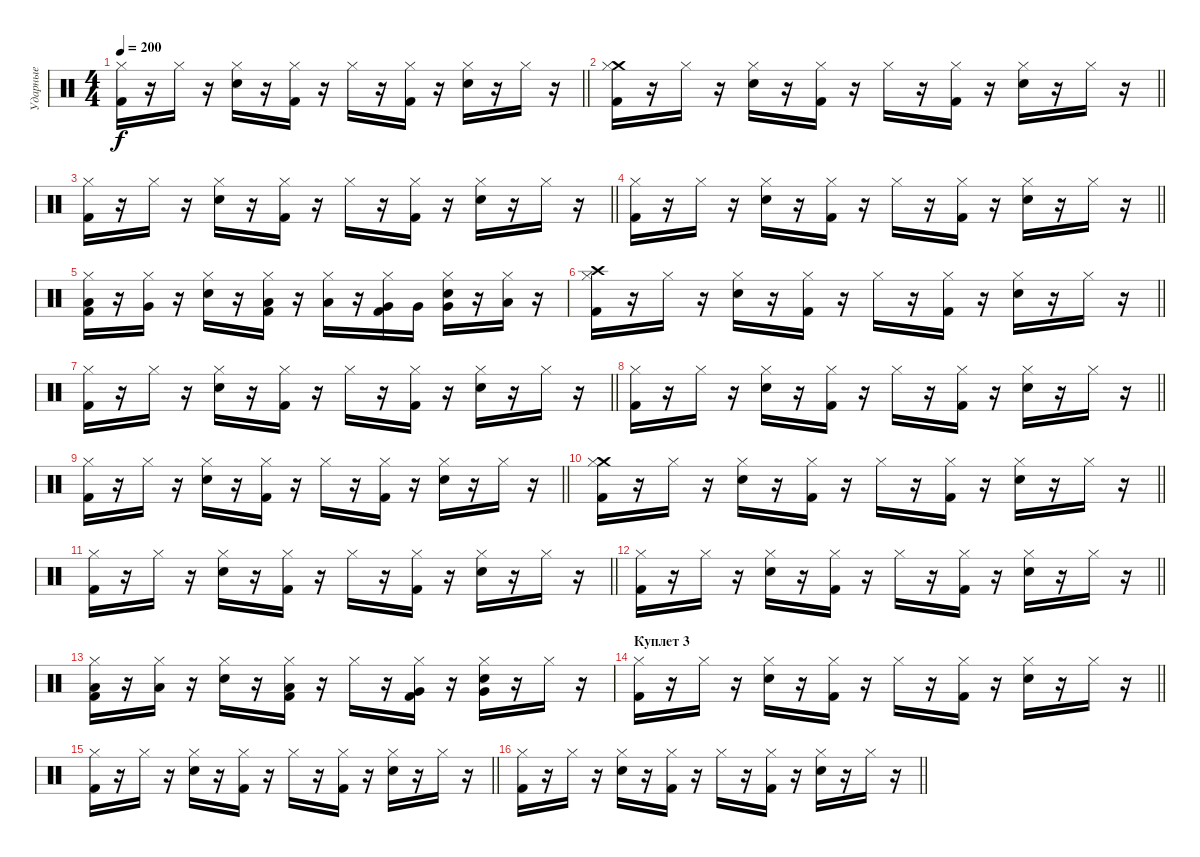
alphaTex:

\track ("Ударные" "Ударные") {instrument percussion}
\staff {score}
\articulation defaults
\ts (4 4)
\tempo 200
\clef neutral
\barLineRight lightlight
\ks c
("Kick (hit) 2" "Hi-Hat (closed)").16{dy f} r.16 "Hi-Hat (closed)".16 r.16 ("Snare (hit) 2" "Hi-Hat (closed)").16 r.16 ("Kick (hit) 2" "Hi-Hat (closed)").16 r.16 "Hi-Hat (closed)".16 r.16 ("Kick (hit) 2" "Hi-Hat (closed)").16 r.16 ("Snare (hit) 2" "Hi-Hat (closed)").16 r.16 "Hi-Hat (closed)".16 r.16 |
\barLineRight lightlight
("Kick (hit) 2" "Crash medium (hit)" "Hi-Hat (closed)").16 r.16 "Hi-Hat (closed)".16 r.16 ("Snare (hit) 2" "Hi-Hat (closed)").16 r.16 ("Kick (hit) 2" "Hi-Hat (closed)").16 r.16 "Hi-Hat (closed)".16 r.16 ("Kick (hit) 2" "Hi-Hat (closed)").16 r.16 ("Snare (hit) 2" "Hi-Hat (closed)").16 r.16 "Hi-Hat (closed)".16 r.16 |
\barLineRight lightlight
("Kick (hit) 2" "Hi-Hat (closed)").16 r.16 "Hi-Hat (closed)".16 r.16 ("Snare (hit) 2" "Hi-Hat (closed)").16 r.16 ("Kick (hit) 2" "Hi-Hat (closed)").16 r.16 "Hi-Hat (closed)".16 r.16 ("Kick (hit) 2" "Hi-Hat (closed)").16 r.16 ("Snare (hit) 2" "Hi-Hat (closed)").16 r.16 "Hi-Hat (closed)".16 r.16 |
\barLineRight lightlight
("Kick (hit) 2" "Hi-Hat (closed)").16 r.16 "Hi-Hat (closed)".16 r.16 ("Snare (hit) 2" "Hi-Hat (closed)").16 r.16 ("Kick (hit) 2" "Hi-Hat (closed)").16 r.16 "Hi-Hat (closed)".16 r.16 ("Kick (hit) 2" "Hi-Hat (closed)").16 r.16 ("Snare (hit) 2" "Hi-Hat (closed)").16 r.16 "Hi-Hat (closed)".16 r.16 |
("Kick (hit) 2" "Low Floor Tom (hit)" "Hi-Hat (closed)").16 r.16 ("Very Low Tom (hit)" "Hi-Hat (closed)").16 r.16 ("Snare (hit) 2" "Hi-Hat (closed)").16 r.16 ("Kick (hit) 2" "Low Floor Tom (hit)" "Hi-Hat (closed)").16 r.16 ("Low Floor Tom (hit)" "Hi-Hat (closed)").16 r.16 ("Kick (hit) 2" "Very Low Tom (hit)" "Hi-Hat (closed)").16 "Very Low Tom (hit)".16 ("Snare (hit) 2" "Very Low Tom (hit)" "Hi-Hat (closed)").16 r.16 ("Low Tom (hit)" "Hi-Hat (closed)").16 r.16 |
\barLineRight lightlight
("Kick (hit) 2" "Crash high (hit)" "Hi-Hat (closed)").16 r.16 "Hi-Hat (closed)".16 r.16 ("Snare (hit) 2" "Hi-Hat (closed)").16 r.16 ("Kick (hit) 2" "Hi-Hat (closed)").16 r.16 "Hi-Hat (closed)".16 r.16 ("Kick (hit) 2" "Hi-Hat (closed)").16 r.16 ("Snare (hit) 2" "Hi-Hat (closed)").16 r.16 "Hi-Hat (closed)".16 r.16 |
\barLineRight lightlight
("Kick (hit) 2" "Hi-Hat (closed)").16 r.16 "Hi-Hat (closed)".16 r.16 ("Snare (hit) 2" "Hi-Hat (closed)").16 r.16 ("Kick (hit) 2" "Hi-Hat (closed)").16 r.16 "Hi-Hat (closed)".16 r.16 ("Kick (hit) 2" "Hi-Hat (closed)").16 r.16 ("Snare (hit) 2" "Hi-Hat (closed)").16 r.16 "Hi-Hat (closed)".16 r.16 |
\barLineRight lightlight
("Kick (hit) 2" "Hi-Hat (closed)").16 r.16 "Hi-Hat (closed)".16 r.16 ("Snare (hit) 2" "Hi-Hat (closed)").16 r.16 ("Kick (hit) 2" "Hi-Hat (closed)").16 r.16 "Hi-Hat (closed)".16 r.16 ("Kick (hit) 2" "Hi-Hat (closed)").16 r.16 ("Snare (hit) 2" "Hi-Hat (closed)").16 r.16 "Hi-Hat (closed)".16 r.16 |
\barLineRight lightlight
("Kick (hit) 2" "Hi-Hat (closed)").16 r.16 "Hi-Hat (closed)".16 r.16 ("Snare (hit) 2" "Hi-Hat (closed)").16 r.16 ("Kick (hit) 2" "Hi-Hat (closed)").16 r.16 "Hi-Hat (closed)".16 r.16 ("Kick (hit) 2" "Hi-Hat (closed)").16 r.16 ("Snare (hit) 2" "Hi-Hat (closed)").16 r.16 "Hi-Hat (closed)".16 r.16 |
\barLineRight lightlight
("Kick (hit) 2" "Crash medium (hit)" "Hi-Hat (closed)").16 r.16 "Hi-Hat (closed)".16 r.16 ("Snare (hit) 2" "Hi-Hat (closed)").16 r.16 ("Kick (hit) 2" "Hi-Hat (closed)").16 r.16 "Hi-Hat (closed)".16 r.16 ("Kick (hit) 2" "Hi-Hat (closed)").16 r.16 ("Snare (hit) 2" "Hi-Hat (closed)").16 r.16 "Hi-Hat (closed)".16 r.16 |
\barLineRight lightlight
("Kick (hit) 2" "Hi-Hat (closed)").16 r.16 "Hi-Hat (closed)".16 r.16 ("Snare (hit) 2" "Hi-Hat (closed)").16 r.16 ("Kick (hit) 2" "Hi-Hat (closed)").16 r.16 "Hi-Hat (closed)".16 r.16 ("Kick (hit) 2" "Hi-Hat (closed)").16 r.16 ("Snare (hit) 2" "Hi-Hat (closed)").16 r.16 "Hi-Hat (closed)".16 r.16 |
\barLineRight lightlight
("Kick (hit) 2" "Hi-Hat (closed)").16 r.16 "Hi-Hat (closed)".16 r.16 ("Snare (hit) 2" "Hi-Hat (closed)").16 r.16 ("Kick (hit) 2" "Hi-Hat (closed)").16 r.16 "Hi-Hat (closed)".16 r.16 ("Kick (hit) 2" "Hi-Hat (closed)").16 r.16 ("Snare (hit) 2" "Hi-Hat (closed)").16 r.16 "Hi-Hat (closed)".16 r.16 |
("Kick (hit) 2" "Low Floor Tom (hit)" "Hi-Hat (closed)").16 r.16 ("Low Floor Tom (hit)" "Hi-Hat (closed)").16 r.16 ("Snare (hit) 2" "Hi-Hat (closed)").16 r.16 ("Kick (hit) 2" "Low Floor Tom (hit)" "Hi-Hat (closed)").16 r.16 "Hi-Hat (closed)".16 r.16 ("Kick (hit) 2" "Very Low Tom (hit)" "Hi-Hat (closed)").16 r.16 ("Snare (hit) 2" "Very Low Tom (hit)" "Hi-Hat (closed)").16 r.16 "Hi-Hat (closed)".16 r.16 |
\section ("" "Куплет 3")
\barLineRight lightlight
("Kick (hit) 2" "Hi-Hat (closed)").16 r.16 "Hi-Hat (closed)".16 r.16 ("Snare (hit) 2" "Hi-Hat (closed)").16 r.16 ("Kick (hit) 2" "Hi-Hat (closed)").16 r.16 "Hi-Hat (closed)".16 r.16 ("Kick (hit) 2" "Hi-Hat (closed)").16 r.16 ("Snare (hit) 2" "Hi-Hat (closed)").16 r.16 "Hi-Hat (closed)".16 r.16 |
\barLineRight lightlight
("Kick (hit) 2" "Hi-Hat (closed)").16 r.16 "Hi-Hat (closed)".16 r.16 ("Snare (hit) 2" "Hi-Hat (closed)").16 r.16 ("Kick (hit) 2" "Hi-Hat (closed)").16 r.16 "Hi-Hat (closed)".16 r.16 ("Kick (hit) 2" "Hi-Hat (closed)").16 r.16 ("Snare (hit) 2" "Hi-Hat (closed)").16 r.16 "Hi-Hat (closed)".16 r.16 |
\barLineRight lightlight
("Kick (hit) 2" "Hi-Hat (closed)").16 r.16 "Hi-Hat (closed)".16 r.16 ("Snare (hit) 2" "Hi-Hat (closed)").16 r.16 ("Kick (hit) 2" "Hi-Hat (closed)").16 r.16 "Hi-Hat (closed)".16 r.16 ("Kick (hit) 2" "Hi-Hat (closed)").16 r.16 ("Snare (hit) 2" "Hi-Hat (closed)").16 r.16 "Hi-Hat (closed)".16 r.16
